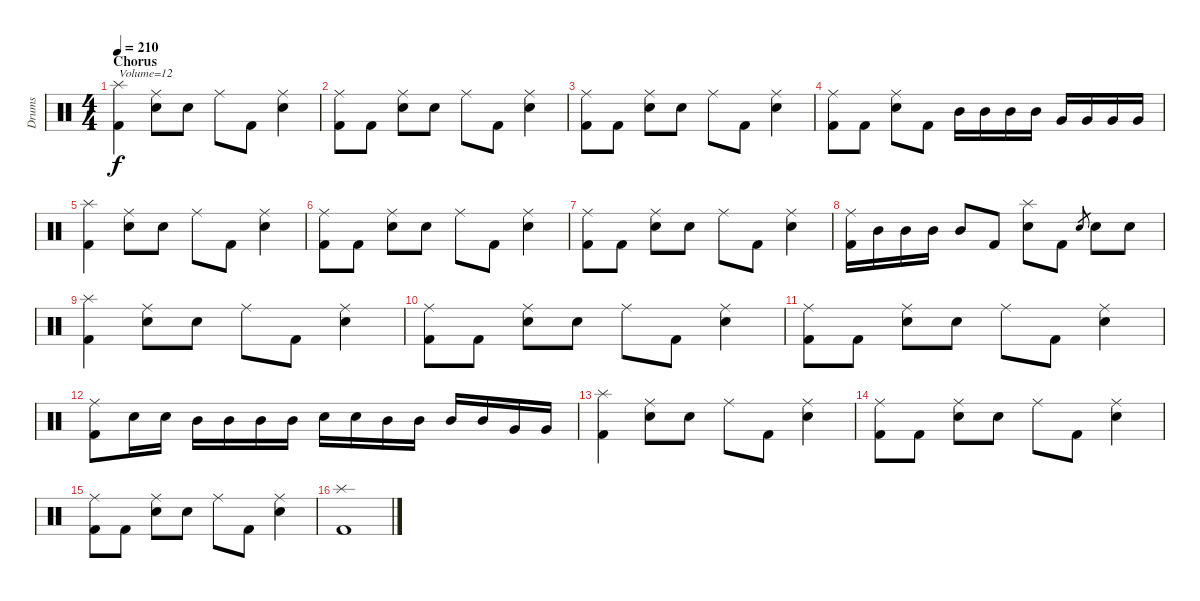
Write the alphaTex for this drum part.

\track ("Drums" "Drums") {instrument percussion}
\staff {score}
\articulation defaults
\ts (4 4)
\section ("" "Chorus")
\tempo 210
\clef neutral
\ks c
("Splash (hit)" "Kick (hit) 2").4{txt "Volume=12" dy f volume 12} ("Ride (middle)" "Electric Snare (hit)").8 "Electric Snare (hit)".8 "Ride (middle)".8 "Kick (hit) 2".8 ("Ride (middle)" "Electric Snare (hit)").4 |
("Ride (middle)" "Kick (hit) 2").8 "Kick (hit) 2".8 ("Ride (middle)" "Electric Snare (hit)").8 "Electric Snare (hit)".8 "Ride (middle)".8 "Kick (hit) 2".8 ("Ride (middle)" "Electric Snare (hit)").4 |
("Ride (middle)" "Kick (hit) 2").8 "Kick (hit) 2".8 ("Ride (middle)" "Electric Snare (hit)").8 "Electric Snare (hit)".8 "Ride (middle)".8 "Kick (hit) 2".8 ("Ride (middle)" "Electric Snare (hit)").4 |
("Ride (middle)" "Kick (hit) 2").8 "Kick (hit) 2".8 ("Ride (middle)" "Electric Snare (hit)").8 "Kick (hit) 2".8 "Mid Tom (hit)".16 "Mid Tom (hit)".16 "Mid Tom (hit)".16 "Mid Tom (hit)".16 "Very Low Tom (hit)".16 "Very Low Tom (hit)".16 "Very Low Tom (hit)".16 "Very Low Tom (hit)".16 |
("Splash (hit)" "Kick (hit) 2").4 ("Ride (middle)" "Electric Snare (hit)").8 "Electric Snare (hit)".8 "Ride (middle)".8 "Kick (hit) 2".8 ("Ride (middle)" "Electric Snare (hit)").4 |
("Ride (middle)" "Kick (hit) 2").8 "Kick (hit) 2".8 ("Ride (middle)" "Electric Snare (hit)").8 "Electric Snare (hit)".8 "Ride (middle)".8 "Kick (hit) 2".8 ("Ride (middle)" "Electric Snare (hit)").4 |
("Ride (middle)" "Kick (hit) 2").8 "Kick (hit) 2".8 ("Ride (middle)" "Electric Snare (hit)").8 "Electric Snare (hit)".8 "Ride (middle)".8 "Kick (hit) 2".8 ("Ride (middle)" "Electric Snare (hit)").4 |
("Ride (middle)" "Kick (hit) 2").16 "Mid Tom (hit)".16 "Mid Tom (hit)".16 "Mid Tom (hit)".16 "Mid Tom (hit)".8 "Kick (hit) 2".8 ("Splash (hit)" "Electric Snare (hit)").8 "Kick (hit) 2".8 "Electric Snare (hit)".8{gr} "Electric Snare (hit)".8 "Electric Snare (hit)".8 |
("Splash (hit)" "Kick (hit) 2").4 ("Ride (middle)" "Electric Snare (hit)").8 "Electric Snare (hit)".8 "Ride (middle)".8 "Kick (hit) 2".8 ("Ride (middle)" "Electric Snare (hit)").4 |
("Ride (middle)" "Kick (hit) 2").8 "Kick (hit) 2".8 ("Ride (middle)" "Electric Snare (hit)").8 "Electric Snare (hit)".8 "Ride (middle)".8 "Kick (hit) 2".8 ("Ride (middle)" "Electric Snare (hit)").4 |
("Ride (middle)" "Kick (hit) 2").8 "Kick (hit) 2".8 ("Ride (middle)" "Electric Snare (hit)").8 "Electric Snare (hit)".8 "Ride (middle)".8 "Kick (hit) 2".8 ("Ride (middle)" "Electric Snare (hit)").4 |
("Ride (middle)" "Kick (hit) 2").8 "Electric Snare (hit)".16 "Electric Snare (hit)".16 "Mid Tom (hit)".16 "Mid Tom (hit)".16 "Mid Tom (hit)".16 "Mid Tom (hit)".16 "Electric Snare (hit)".16 "Electric Snare (hit)".16 "Mid Tom (hit)".16 "Mid Tom (hit)".16 "Mid Tom (hit)".16 "Mid Tom (hit)".16 "Very Low Tom (hit)".16 "Very Low Tom (hit)".16 |
("Splash (hit)" "Kick (hit) 2").4 ("Ride (middle)" "Electric Snare (hit)").8 "Electric Snare (hit)".8 "Ride (middle)".8 "Kick (hit) 2".8 ("Ride (middle)" "Electric Snare (hit)").4 |
("Ride (middle)" "Kick (hit) 2").8 "Kick (hit) 2".8 ("Ride (middle)" "Electric Snare (hit)").8 "Electric Snare (hit)".8 "Ride (middle)".8 "Kick (hit) 2".8 ("Ride (middle)" "Electric Snare (hit)").4 |
("Ride (middle)" "Kick (hit) 2").8 "Kick (hit) 2".8 ("Ride (middle)" "Electric Snare (hit)").8 "Electric Snare (hit)".8 "Ride (middle)".8 "Kick (hit) 2".8 ("Ride (middle)" "Electric Snare (hit)").4 |
("Splash (hit)" "Kick (hit) 2").1
